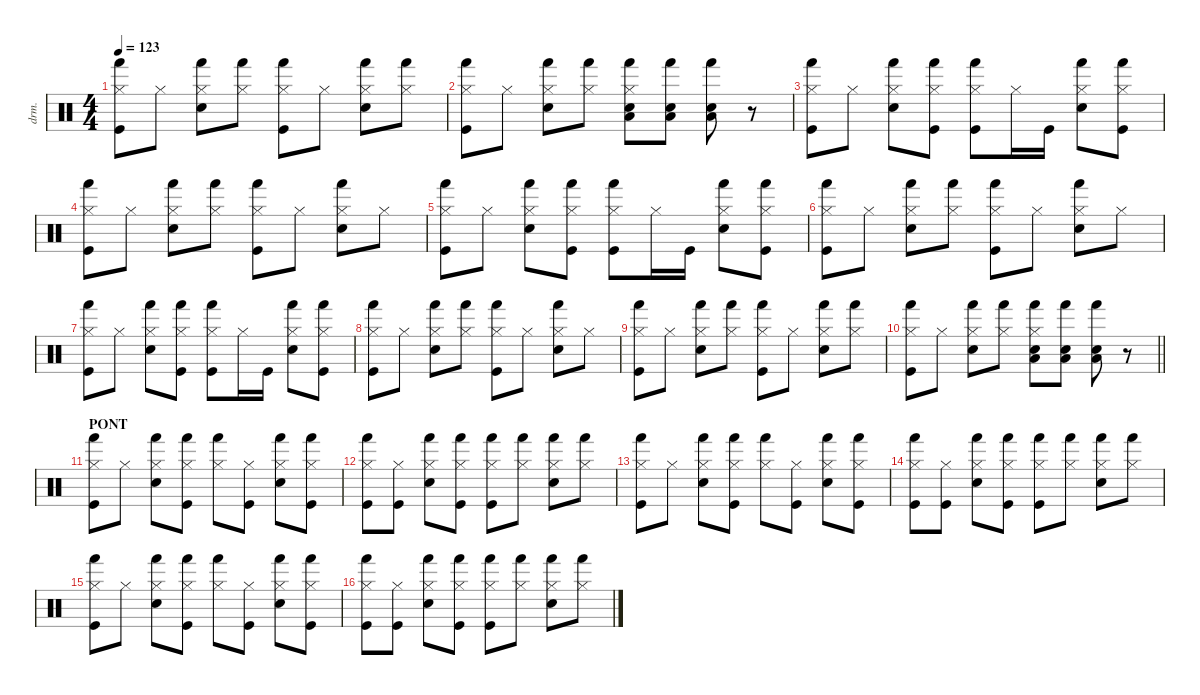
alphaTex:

\defaultSystemsLayout 4
\hideDynamics
\bracketExtendMode nobrackets
\otherSystemsTrackNameOrientation horizontal
\track ("Drums" "drm.") {defaultSystemsLayout 4 instrument percussion}
\staff {score}
\articulation defaults
\ts (4 4)
\tempo 123
\clef neutral
\ks c
("Kick (hit)" "Hi-Hat (closed)" "Hand (hit)").8{dy fff beam Down} "Hi-Hat (closed)".8{beam Down} ("Snare (hit) 2" "Hand (hit)" "Hi-Hat (closed)").8{beam Down} ("Hi-Hat (closed)" "Hand (hit)").8{beam Down} ("Hand (hit)" "Hi-Hat (closed)" "Kick (hit)").8{beam Down} "Hi-Hat (closed)".8{beam Down} ("Hi-Hat (closed)" "Hand (hit)" "Snare (hit) 2").8{beam Down} ("Hi-Hat (closed)" "Hand (hit)").8{beam Down} |
("Hi-Hat (closed)" "Kick (hit)" "Hand (hit)").8{beam Down} "Hi-Hat (closed)".8{beam Down} ("Hand (hit)" "Snare (hit) 2" "Hi-Hat (closed)").8{beam Down} ("Hand (hit)" "Hi-Hat (closed)").8{beam Down} ("Hi-Hat (closed)" "Snare (hit) 2" "Low Tom (hit)" "Hand (hit)").8{beam Down} ("Low Tom (hit)" "Snare (hit) 2" "Hand (hit)").8{beam Down} ("Low Tom (hit)" "Snare (hit) 2" "Hand (hit)").8{beam Down} r.8{beam Down} |
("Hand (hit)" "Hi-Hat (closed)" "Kick (hit)").8{beam Down} "Hi-Hat (closed)".8{beam Down} ("Hi-Hat (closed)" "Hand (hit)" "Snare (hit) 2").8{beam Down} ("Hi-Hat (closed)" "Hand (hit)" "Kick (hit)").8{beam Down} ("Hi-Hat (closed)" "Hand (hit)" "Kick (hit)").8{beam Down} "Hi-Hat (closed)".16{beam Down} "Kick (hit)".16{beam Down} ("Hi-Hat (closed)" "Snare (hit) 2" "Hand (hit)").8{beam Down} ("Hi-Hat (closed)" "Hand (hit)" "Kick (hit)").8{beam Down} |
("Hi-Hat (closed)" "Kick (hit)" "Hand (hit)").8{beam Down} "Hi-Hat (closed)".8{beam Down} ("Snare (hit) 2" "Hand (hit)" "Hi-Hat (closed)").8{beam Down} ("Hi-Hat (closed)" "Hand (hit)").8{beam Down} ("Hi-Hat (closed)" "Kick (hit)" "Hand (hit)").8{beam Down} "Hi-Hat (closed)".8{beam Down} ("Snare (hit) 2" "Hand (hit)" "Hi-Hat (closed)").8{beam Down} "Hi-Hat (closed)".8{beam Down} |
("Hand (hit)" "Hi-Hat (closed)" "Kick (hit)").8{beam Down} "Hi-Hat (closed)".8{beam Down} ("Hi-Hat (closed)" "Hand (hit)" "Snare (hit) 2").8{beam Down} ("Hi-Hat (closed)" "Hand (hit)" "Kick (hit)").8{beam Down} ("Hi-Hat (closed)" "Hand (hit)" "Kick (hit)").8{beam Down} "Hi-Hat (closed)".16{beam Down} "Kick (hit)".16{beam Down} ("Hi-Hat (closed)" "Snare (hit) 2" "Hand (hit)").8{beam Down} ("Hi-Hat (closed)" "Hand (hit)" "Kick (hit)").8{beam Down} |
("Hi-Hat (closed)" "Kick (hit)" "Hand (hit)").8{beam Down} "Hi-Hat (closed)".8{beam Down} ("Snare (hit) 2" "Hand (hit)" "Hi-Hat (closed)").8{beam Down} ("Hi-Hat (closed)" "Hand (hit)").8{beam Down} ("Hi-Hat (closed)" "Kick (hit)" "Hand (hit)").8{beam Down} "Hi-Hat (closed)".8{beam Down} ("Snare (hit) 2" "Hand (hit)" "Hi-Hat (closed)").8{beam Down} "Hi-Hat (closed)".8{beam Down} |
("Hand (hit)" "Hi-Hat (closed)" "Kick (hit)").8{beam Down} "Hi-Hat (closed)".8{beam Down} ("Hi-Hat (closed)" "Hand (hit)" "Snare (hit) 2").8{beam Down} ("Hi-Hat (closed)" "Hand (hit)" "Kick (hit)").8{beam Down} ("Hi-Hat (closed)" "Hand (hit)" "Kick (hit)").8{beam Down} "Hi-Hat (closed)".16{beam Down} "Kick (hit)".16{beam Down} ("Hi-Hat (closed)" "Snare (hit) 2" "Hand (hit)").8{beam Down} ("Hi-Hat (closed)" "Hand (hit)" "Kick (hit)").8{beam Down} |
("Hi-Hat (closed)" "Kick (hit)" "Hand (hit)").8{beam Down} "Hi-Hat (closed)".8{beam Down} ("Snare (hit) 2" "Hand (hit)" "Hi-Hat (closed)").8{beam Down} ("Hi-Hat (closed)" "Hand (hit)").8{beam Down} ("Hi-Hat (closed)" "Kick (hit)" "Hand (hit)").8{beam Down} "Hi-Hat (closed)".8{beam Down} ("Snare (hit) 2" "Hand (hit)" "Hi-Hat (closed)").8{beam Down} "Hi-Hat (closed)".8{beam Down} |
("Kick (hit)" "Hi-Hat (closed)" "Hand (hit)").8{beam Down} "Hi-Hat (closed)".8{beam Down} ("Snare (hit) 2" "Hand (hit)" "Hi-Hat (closed)").8{beam Down} ("Hi-Hat (closed)" "Hand (hit)").8{beam Down} ("Hand (hit)" "Hi-Hat (closed)" "Kick (hit)").8{beam Down} "Hi-Hat (closed)".8{beam Down} ("Hi-Hat (closed)" "Hand (hit)" "Snare (hit) 2").8{beam Down} ("Hi-Hat (closed)" "Hand (hit)").8{beam Down} |
\barLineRight lightlight
("Hi-Hat (closed)" "Kick (hit)" "Hand (hit)").8{beam Down} "Hi-Hat (closed)".8{beam Down} ("Hand (hit)" "Snare (hit) 2" "Hi-Hat (closed)").8{beam Down} ("Hand (hit)" "Hi-Hat (closed)").8{beam Down} ("Hi-Hat (closed)" "Snare (hit) 2" "Low Tom (hit)" "Hand (hit)").8{beam Down} ("Low Tom (hit)" "Snare (hit) 2" "Hand (hit)").8{beam Down} ("Low Tom (hit)" "Snare (hit) 2" "Hand (hit)").8{beam Down} r.8{beam Down} |
\section ("" "PONT")
("Kick (hit)" "Hi-Hat (closed)" "Hand (hit)").8{beam Down} "Hi-Hat (closed)".8{beam Down} ("Snare (hit) 2" "Hi-Hat (closed)" "Hand (hit)").8{beam Down} ("Hand (hit)" "Hi-Hat (closed)" "Kick (hit)").8{beam Down} ("Hi-Hat (closed)" "Hand (hit)").8{beam Down} ("Kick (hit)" "Hi-Hat (closed)").8{beam Down} ("Hi-Hat (closed)" "Snare (hit) 2" "Hand (hit)").8{beam Down} ("Kick (hit)" "Hi-Hat (closed)" "Hand (hit)").8{beam Down} |
("Hand (hit)" "Kick (hit)" "Hi-Hat (closed)").8{beam Down} ("Hi-Hat (closed)" "Kick (hit)").8{beam Down} ("Snare (hit) 2" "Hi-Hat (closed)" "Hand (hit)").8{beam Down} ("Kick (hit)" "Hand (hit)" "Hi-Hat (closed)").8{beam Down} ("Kick (hit)" "Hand (hit)" "Hi-Hat (closed)").8{beam Down} ("Hand (hit)" "Hi-Hat (closed)").8{beam Down} ("Snare (hit) 2" "Hand (hit)" "Hi-Hat (closed)").8{beam Down} ("Hi-Hat (closed)" "Hand (hit)").8{beam Down} |
("Kick (hit)" "Hi-Hat (closed)" "Hand (hit)").8{beam Down} "Hi-Hat (closed)".8{beam Down} ("Snare (hit) 2" "Hi-Hat (closed)" "Hand (hit)").8{beam Down} ("Hand (hit)" "Hi-Hat (closed)" "Kick (hit)").8{beam Down} ("Hi-Hat (closed)" "Hand (hit)").8{beam Down} ("Kick (hit)" "Hi-Hat (closed)").8{beam Down} ("Hi-Hat (closed)" "Snare (hit) 2" "Hand (hit)").8{beam Down} ("Kick (hit)" "Hi-Hat (closed)" "Hand (hit)").8{beam Down} |
("Hand (hit)" "Kick (hit)" "Hi-Hat (closed)").8{beam Down} ("Hi-Hat (closed)" "Kick (hit)").8{beam Down} ("Snare (hit) 2" "Hi-Hat (closed)" "Hand (hit)").8{beam Down} ("Kick (hit)" "Hand (hit)" "Hi-Hat (closed)").8{beam Down} ("Kick (hit)" "Hand (hit)" "Hi-Hat (closed)").8{beam Down} ("Hand (hit)" "Hi-Hat (closed)").8{beam Down} ("Snare (hit) 2" "Hand (hit)" "Hi-Hat (closed)").8{beam Down} ("Hi-Hat (closed)" "Hand (hit)").8{beam Down} |
("Kick (hit)" "Hi-Hat (closed)" "Hand (hit)").8{beam Down} "Hi-Hat (closed)".8{beam Down} ("Snare (hit) 2" "Hi-Hat (closed)" "Hand (hit)").8{beam Down} ("Hand (hit)" "Hi-Hat (closed)" "Kick (hit)").8{beam Down} ("Hi-Hat (closed)" "Hand (hit)").8{beam Down} ("Kick (hit)" "Hi-Hat (closed)").8{beam Down} ("Hi-Hat (closed)" "Snare (hit) 2" "Hand (hit)").8{beam Down} ("Kick (hit)" "Hi-Hat (closed)" "Hand (hit)").8{beam Down} |
("Hand (hit)" "Kick (hit)" "Hi-Hat (closed)").8{beam Down} ("Hi-Hat (closed)" "Kick (hit)").8{beam Down} ("Snare (hit) 2" "Hi-Hat (closed)" "Hand (hit)").8{beam Down} ("Kick (hit)" "Hand (hit)" "Hi-Hat (closed)").8{beam Down} ("Kick (hit)" "Hand (hit)" "Hi-Hat (closed)").8{beam Down} ("Hand (hit)" "Hi-Hat (closed)").8{beam Down} ("Snare (hit) 2" "Hand (hit)" "Hi-Hat (closed)").8{beam Down} ("Hi-Hat (closed)" "Hand (hit)").8{beam Down}
